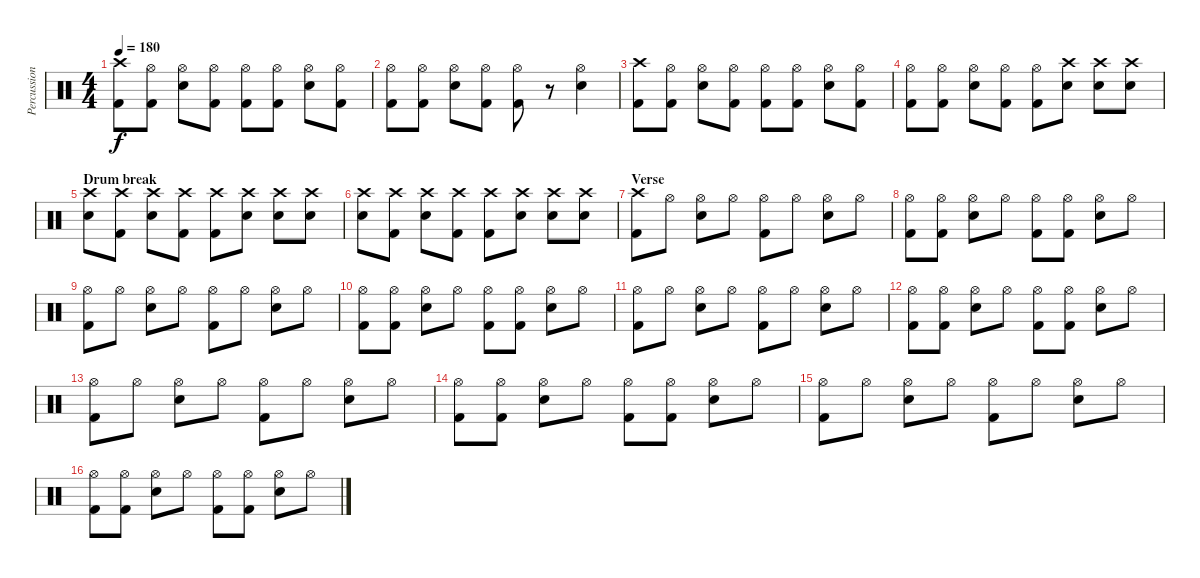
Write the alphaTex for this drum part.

\track ("Percussion" "Percussion") {instrument percussion}
\staff {score}
\articulation defaults
\ts (4 4)
\tempo 180
\clef neutral
\ks c
("Crash high (hit)" "Kick (hit) 2").8{dy f} ("Hi-Hat (open)" "Kick (hit) 2").8 ("Hi-Hat (open)" "Snare (hit) 2").8 ("Hi-Hat (open)" "Kick (hit) 2").8 ("Hi-Hat (open)" "Kick (hit) 2").8 ("Hi-Hat (open)" "Kick (hit) 2").8 ("Hi-Hat (open)" "Snare (hit) 2").8 ("Hi-Hat (open)" "Kick (hit) 2").8 |
("Hi-Hat (open)" "Kick (hit) 2").8 ("Hi-Hat (open)" "Kick (hit) 2").8 ("Hi-Hat (open)" "Snare (hit) 2").8 ("Hi-Hat (open)" "Kick (hit) 2").8 ("Hi-Hat (open)" "Kick (hit) 2").8 r.8 ("Hi-Hat (open)" "Snare (hit) 2").4 |
("Crash high (hit)" "Kick (hit) 2").8 ("Hi-Hat (open)" "Kick (hit) 2").8 ("Hi-Hat (open)" "Snare (hit) 2").8 ("Hi-Hat (open)" "Kick (hit) 2").8 ("Hi-Hat (open)" "Kick (hit) 2").8 ("Hi-Hat (open)" "Kick (hit) 2").8 ("Hi-Hat (open)" "Snare (hit) 2").8 ("Hi-Hat (open)" "Kick (hit) 2").8 |
("Hi-Hat (open)" "Kick (hit) 2").8 ("Hi-Hat (open)" "Kick (hit) 2").8 ("Hi-Hat (open)" "Snare (hit) 2").8 ("Hi-Hat (open)" "Kick (hit) 2").8 ("Hi-Hat (open)" "Kick (hit) 2").8 ("Crash high (hit)" "Snare (hit) 2").8 ("Crash high (hit)" "Snare (hit) 2").8 ("Crash high (hit)" "Snare (hit) 2").8 |
\section ("" "Drum break")
("Crash high (hit)" "Snare (hit) 2").8 ("Crash high (hit)" "Kick (hit) 2").8 ("Crash high (hit)" "Snare (hit) 2").8 ("Crash high (hit)" "Kick (hit) 2").8 ("Crash high (hit)" "Kick (hit) 2").8 ("Crash high (hit)" "Snare (hit) 2").8 ("Crash high (hit)" "Snare (hit) 2").8 ("Crash high (hit)" "Snare (hit) 2").8 |
("Crash high (hit)" "Snare (hit) 2").8 ("Crash high (hit)" "Kick (hit) 2").8 ("Crash high (hit)" "Snare (hit) 2").8 ("Crash high (hit)" "Kick (hit) 2").8 ("Crash high (hit)" "Kick (hit) 2").8 ("Crash high (hit)" "Snare (hit) 2").8 ("Crash high (hit)" "Snare (hit) 2").8 ("Crash high (hit)" "Snare (hit) 2").8 |
\section ("" "Verse")
("Crash high (hit)" "Kick (hit) 2").8 "Hi-Hat (open)".8 ("Hi-Hat (open)" "Snare (hit) 2").8 "Hi-Hat (open)".8 ("Hi-Hat (open)" "Kick (hit) 2").8 "Hi-Hat (open)".8 ("Hi-Hat (open)" "Snare (hit) 2").8 "Hi-Hat (open)".8 |
("Hi-Hat (open)" "Kick (hit) 2").8 ("Hi-Hat (open)" "Kick (hit) 2").8 ("Hi-Hat (open)" "Snare (hit) 2").8 "Hi-Hat (open)".8 ("Hi-Hat (open)" "Kick (hit) 2").8 ("Hi-Hat (open)" "Kick (hit) 2").8 ("Hi-Hat (open)" "Snare (hit) 2").8 "Hi-Hat (open)".8 |
("Hi-Hat (open)" "Kick (hit) 2").8 "Hi-Hat (open)".8 ("Hi-Hat (open)" "Snare (hit) 2").8 "Hi-Hat (open)".8 ("Hi-Hat (open)" "Kick (hit) 2").8 "Hi-Hat (open)".8 ("Hi-Hat (open)" "Snare (hit) 2").8 "Hi-Hat (open)".8 |
("Hi-Hat (open)" "Kick (hit) 2").8 ("Hi-Hat (open)" "Kick (hit) 2").8 ("Hi-Hat (open)" "Snare (hit) 2").8 "Hi-Hat (open)".8 ("Hi-Hat (open)" "Kick (hit) 2").8 ("Hi-Hat (open)" "Kick (hit) 2").8 ("Hi-Hat (open)" "Snare (hit) 2").8 "Hi-Hat (open)".8 |
("Hi-Hat (open)" "Kick (hit) 2").8 "Hi-Hat (open)".8 ("Hi-Hat (open)" "Snare (hit) 2").8 "Hi-Hat (open)".8 ("Hi-Hat (open)" "Kick (hit) 2").8 "Hi-Hat (open)".8 ("Hi-Hat (open)" "Snare (hit) 2").8 "Hi-Hat (open)".8 |
("Hi-Hat (open)" "Kick (hit) 2").8 ("Hi-Hat (open)" "Kick (hit) 2").8 ("Hi-Hat (open)" "Snare (hit) 2").8 "Hi-Hat (open)".8 ("Hi-Hat (open)" "Kick (hit) 2").8 ("Hi-Hat (open)" "Kick (hit) 2").8 ("Hi-Hat (open)" "Snare (hit) 2").8 "Hi-Hat (open)".8 |
("Hi-Hat (open)" "Kick (hit) 2").8 "Hi-Hat (open)".8 ("Hi-Hat (open)" "Snare (hit) 2").8 "Hi-Hat (open)".8 ("Hi-Hat (open)" "Kick (hit) 2").8 "Hi-Hat (open)".8 ("Hi-Hat (open)" "Snare (hit) 2").8 "Hi-Hat (open)".8 |
("Hi-Hat (open)" "Kick (hit) 2").8 ("Hi-Hat (open)" "Kick (hit) 2").8 ("Hi-Hat (open)" "Snare (hit) 2").8 "Hi-Hat (open)".8 ("Hi-Hat (open)" "Kick (hit) 2").8 ("Hi-Hat (open)" "Kick (hit) 2").8 ("Hi-Hat (open)" "Snare (hit) 2").8 "Hi-Hat (open)".8 |
("Hi-Hat (open)" "Kick (hit) 2").8 "Hi-Hat (open)".8 ("Hi-Hat (open)" "Snare (hit) 2").8 "Hi-Hat (open)".8 ("Hi-Hat (open)" "Kick (hit) 2").8 "Hi-Hat (open)".8 ("Hi-Hat (open)" "Snare (hit) 2").8 "Hi-Hat (open)".8 |
("Hi-Hat (open)" "Kick (hit) 2").8 ("Hi-Hat (open)" "Kick (hit) 2").8 ("Hi-Hat (open)" "Snare (hit) 2").8 "Hi-Hat (open)".8 ("Hi-Hat (open)" "Kick (hit) 2").8 ("Hi-Hat (open)" "Kick (hit) 2").8 ("Hi-Hat (open)" "Snare (hit) 2").8 "Hi-Hat (open)".8
